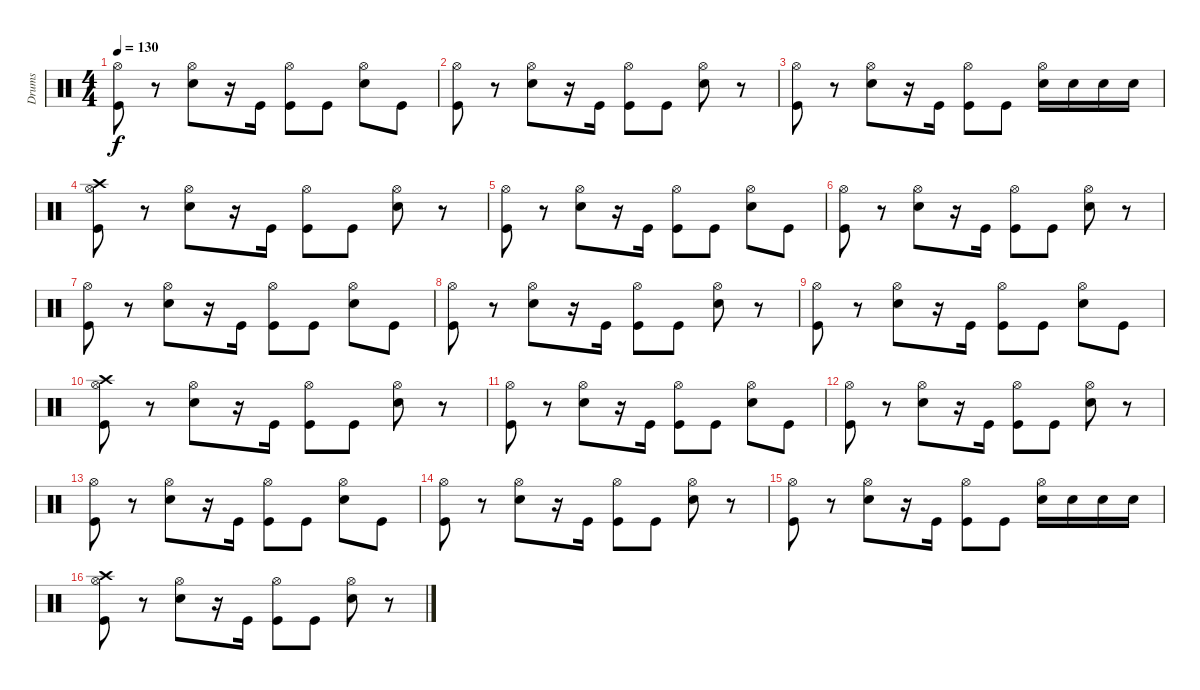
\track ("Drums" "Drums") {instrument percussion}
\staff {score}
\articulation defaults
\ts (4 4)
\tempo 130
\clef neutral
\ks c
("Hi-Hat (open)" "Kick (hit)").8{dy f} r.8 ("Hi-Hat (open)" "Snare (hit) 2").8 r.16 "Kick (hit)".16 ("Hi-Hat (open)" "Kick (hit)").8 "Kick (hit)".8 ("Hi-Hat (open)" "Snare (hit) 2").8 "Kick (hit)".8 |
("Hi-Hat (open)" "Kick (hit)").8 r.8 ("Hi-Hat (open)" "Snare (hit) 2").8 r.16 "Kick (hit)".16 ("Hi-Hat (open)" "Kick (hit)").8 "Kick (hit)".8 ("Hi-Hat (open)" "Snare (hit) 2").8 r.8 |
("Hi-Hat (open)" "Kick (hit)").8 r.8 ("Hi-Hat (open)" "Snare (hit) 2").8 r.16 "Kick (hit)".16 ("Hi-Hat (open)" "Kick (hit)").8 "Kick (hit)".8 ("Hi-Hat (open)" "Snare (hit) 2").16 "Snare (hit) 2".16 "Snare (hit) 2".16 "Snare (hit) 2".16 |
("Crash high (hit)" "Hi-Hat (open)" "Kick (hit)").8 r.8 ("Hi-Hat (open)" "Snare (hit) 2").8 r.16 "Kick (hit)".16 ("Hi-Hat (open)" "Kick (hit)").8 "Kick (hit)".8 ("Hi-Hat (open)" "Snare (hit) 2").8 r.8 |
("Hi-Hat (open)" "Kick (hit)").8 r.8 ("Hi-Hat (open)" "Snare (hit) 2").8 r.16 "Kick (hit)".16 ("Hi-Hat (open)" "Kick (hit)").8 "Kick (hit)".8 ("Hi-Hat (open)" "Snare (hit) 2").8 "Kick (hit)".8 |
("Hi-Hat (open)" "Kick (hit)").8 r.8 ("Hi-Hat (open)" "Snare (hit) 2").8 r.16 "Kick (hit)".16 ("Hi-Hat (open)" "Kick (hit)").8 "Kick (hit)".8 ("Hi-Hat (open)" "Snare (hit) 2").8 r.8 |
("Hi-Hat (open)" "Kick (hit)").8 r.8 ("Hi-Hat (open)" "Snare (hit) 2").8 r.16 "Kick (hit)".16 ("Hi-Hat (open)" "Kick (hit)").8 "Kick (hit)".8 ("Hi-Hat (open)" "Snare (hit) 2").8 "Kick (hit)".8 |
("Hi-Hat (open)" "Kick (hit)").8 r.8 ("Hi-Hat (open)" "Snare (hit) 2").8 r.16 "Kick (hit)".16 ("Hi-Hat (open)" "Kick (hit)").8 "Kick (hit)".8 ("Hi-Hat (open)" "Snare (hit) 2").8 r.8 |
("Hi-Hat (open)" "Kick (hit)").8 r.8 ("Hi-Hat (open)" "Snare (hit) 2").8 r.16 "Kick (hit)".16 ("Hi-Hat (open)" "Kick (hit)").8 "Kick (hit)".8 ("Hi-Hat (open)" "Snare (hit) 2").8 "Kick (hit)".8 |
("Crash high (hit)" "Hi-Hat (open)" "Kick (hit)").8 r.8 ("Hi-Hat (open)" "Snare (hit) 2").8 r.16 "Kick (hit)".16 ("Hi-Hat (open)" "Kick (hit)").8 "Kick (hit)".8 ("Hi-Hat (open)" "Snare (hit) 2").8 r.8 |
("Hi-Hat (open)" "Kick (hit)").8 r.8 ("Hi-Hat (open)" "Snare (hit) 2").8 r.16 "Kick (hit)".16 ("Hi-Hat (open)" "Kick (hit)").8 "Kick (hit)".8 ("Hi-Hat (open)" "Snare (hit) 2").8 "Kick (hit)".8 |
("Hi-Hat (open)" "Kick (hit)").8 r.8 ("Hi-Hat (open)" "Snare (hit) 2").8 r.16 "Kick (hit)".16 ("Hi-Hat (open)" "Kick (hit)").8 "Kick (hit)".8 ("Hi-Hat (open)" "Snare (hit) 2").8 r.8 |
("Hi-Hat (open)" "Kick (hit)").8 r.8 ("Hi-Hat (open)" "Snare (hit) 2").8 r.16 "Kick (hit)".16 ("Hi-Hat (open)" "Kick (hit)").8 "Kick (hit)".8 ("Hi-Hat (open)" "Snare (hit) 2").8 "Kick (hit)".8 |
("Hi-Hat (open)" "Kick (hit)").8 r.8 ("Hi-Hat (open)" "Snare (hit) 2").8 r.16 "Kick (hit)".16 ("Hi-Hat (open)" "Kick (hit)").8 "Kick (hit)".8 ("Hi-Hat (open)" "Snare (hit) 2").8 r.8 |
("Hi-Hat (open)" "Kick (hit)").8 r.8 ("Hi-Hat (open)" "Snare (hit) 2").8 r.16 "Kick (hit)".16 ("Hi-Hat (open)" "Kick (hit)").8 "Kick (hit)".8 ("Hi-Hat (open)" "Snare (hit) 2").16 "Snare (hit) 2".16 "Snare (hit) 2".16 "Snare (hit) 2".16 |
("Crash high (hit)" "Hi-Hat (open)" "Kick (hit)").8 r.8 ("Hi-Hat (open)" "Snare (hit) 2").8 r.16 "Kick (hit)".16 ("Hi-Hat (open)" "Kick (hit)").8 "Kick (hit)".8 ("Hi-Hat (open)" "Snare (hit) 2").8 r.8
